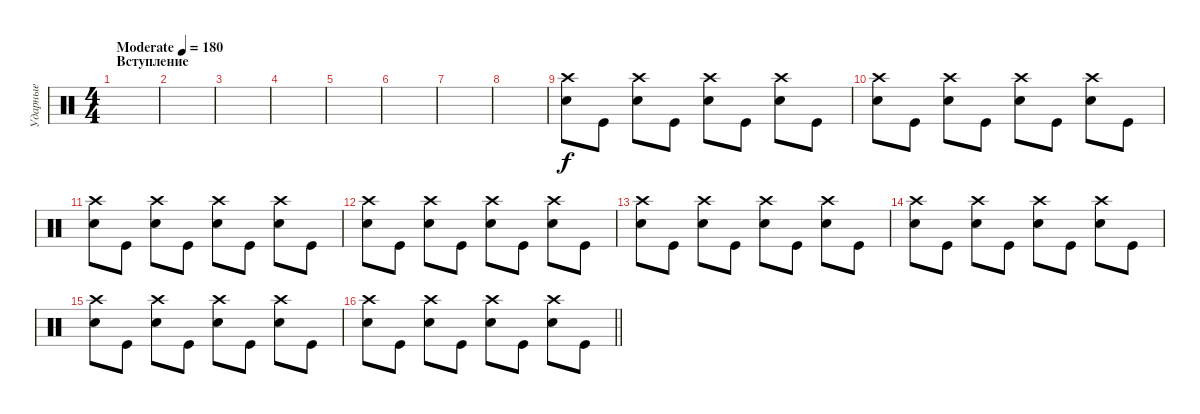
\track ("Ударные" "Ударные") {instrument percussion}
\staff {score}
\articulation defaults
\ts (4 4)
\section ("" "Вступление")
\tempo (180 "Moderate")
\clef neutral
\ks c
|
|
|
|
|
|
|
|
("Electric Snare (hit)" "Crash high (hit)").8 "Kick (hit)".8 ("Electric Snare (hit)" "Crash high (hit)").8 "Kick (hit)".8 ("Electric Snare (hit)" "Crash high (hit)").8 "Kick (hit)".8 ("Electric Snare (hit)" "Crash high (hit)").8 "Kick (hit)".8 |
("Electric Snare (hit)" "Crash high (hit)").8 "Kick (hit)".8 ("Electric Snare (hit)" "Crash high (hit)").8 "Kick (hit)".8 ("Electric Snare (hit)" "Crash high (hit)").8 "Kick (hit)".8 ("Electric Snare (hit)" "Crash high (hit)").8 "Kick (hit)".8 |
("Electric Snare (hit)" "Crash high (hit)").8 "Kick (hit)".8 ("Electric Snare (hit)" "Crash high (hit)").8 "Kick (hit)".8 ("Electric Snare (hit)" "Crash high (hit)").8 "Kick (hit)".8 ("Electric Snare (hit)" "Crash high (hit)").8 "Kick (hit)".8 |
("Electric Snare (hit)" "Crash high (hit)").8 "Kick (hit)".8 ("Electric Snare (hit)" "Crash high (hit)").8 "Kick (hit)".8 ("Electric Snare (hit)" "Crash high (hit)").8 "Kick (hit)".8 ("Electric Snare (hit)" "Crash high (hit)").8 "Kick (hit)".8 |
("Electric Snare (hit)" "Crash high (hit)").8 "Kick (hit)".8 ("Electric Snare (hit)" "Crash high (hit)").8 "Kick (hit)".8 ("Electric Snare (hit)" "Crash high (hit)").8 "Kick (hit)".8 ("Electric Snare (hit)" "Crash high (hit)").8 "Kick (hit)".8 |
("Electric Snare (hit)" "Crash high (hit)").8 "Kick (hit)".8 ("Electric Snare (hit)" "Crash high (hit)").8 "Kick (hit)".8 ("Electric Snare (hit)" "Crash high (hit)").8 "Kick (hit)".8 ("Electric Snare (hit)" "Crash high (hit)").8 "Kick (hit)".8 |
("Electric Snare (hit)" "Crash high (hit)").8 "Kick (hit)".8 ("Electric Snare (hit)" "Crash high (hit)").8 "Kick (hit)".8 ("Electric Snare (hit)" "Crash high (hit)").8 "Kick (hit)".8 ("Electric Snare (hit)" "Crash high (hit)").8 "Kick (hit)".8 |
\barLineRight lightlight
("Electric Snare (hit)" "Crash high (hit)").8 "Kick (hit)".8 ("Electric Snare (hit)" "Crash high (hit)").8 "Kick (hit)".8 ("Electric Snare (hit)" "Crash high (hit)").8 "Kick (hit)".8 ("Electric Snare (hit)" "Crash high (hit)").8 "Kick (hit)".8
